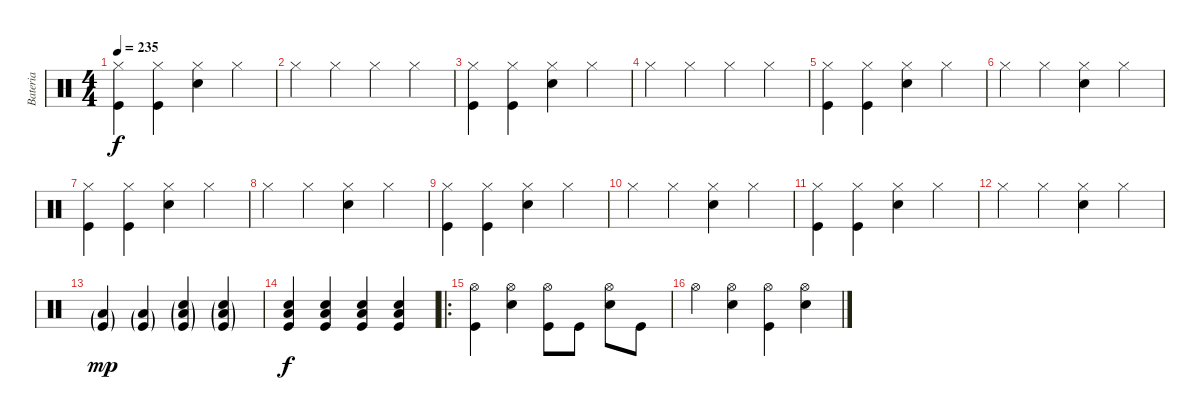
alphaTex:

\track ("Bateria" "Bateria") {instrument percussion}
\staff {score}
\articulation defaults
\ts (4 4)
\tempo 235
\clef neutral
\ks c
("Hi-Hat (closed)" "Kick (hit)").4{dy f} ("Hi-Hat (closed)" "Kick (hit)").4 ("Hi-Hat (closed)" "Electric Snare (hit)").4 "Hi-Hat (closed)".4 |
"Hi-Hat (closed)".4 "Hi-Hat (closed)".4 "Hi-Hat (closed)".4 "Hi-Hat (closed)".4 |
("Hi-Hat (closed)" "Kick (hit)").4 ("Hi-Hat (closed)" "Kick (hit)").4 ("Hi-Hat (closed)" "Electric Snare (hit)").4 "Hi-Hat (closed)".4 |
"Hi-Hat (closed)".4 "Hi-Hat (closed)".4 "Hi-Hat (closed)".4 "Hi-Hat (closed)".4 |
("Hi-Hat (closed)" "Kick (hit)").4 ("Hi-Hat (closed)" "Kick (hit)").4 ("Hi-Hat (closed)" "Electric Snare (hit)").4 "Hi-Hat (closed)".4 |
"Hi-Hat (closed)".4 "Hi-Hat (closed)".4 ("Hi-Hat (closed)" "Electric Snare (hit)").4 "Hi-Hat (closed)".4 |
("Hi-Hat (closed)" "Kick (hit)").4 ("Hi-Hat (closed)" "Kick (hit)").4 ("Hi-Hat (closed)" "Electric Snare (hit)").4 "Hi-Hat (closed)".4 |
"Hi-Hat (closed)".4 "Hi-Hat (closed)".4 ("Hi-Hat (closed)" "Electric Snare (hit)").4 "Hi-Hat (closed)".4 |
("Hi-Hat (closed)" "Kick (hit)").4 ("Hi-Hat (closed)" "Kick (hit)").4 ("Hi-Hat (closed)" "Electric Snare (hit)").4 "Hi-Hat (closed)".4 |
"Hi-Hat (closed)".4 "Hi-Hat (closed)".4 ("Hi-Hat (closed)" "Electric Snare (hit)").4 "Hi-Hat (closed)".4 |
("Hi-Hat (closed)" "Kick (hit)").4 ("Hi-Hat (closed)" "Kick (hit)").4 ("Hi-Hat (closed)" "Electric Snare (hit)").4 "Hi-Hat (closed)".4 |
"Hi-Hat (closed)".4 "Hi-Hat (closed)".4 ("Hi-Hat (closed)" "Electric Snare (hit)").4 "Hi-Hat (closed)".4 |
("Low Floor Tom (hit)"{g} "Kick (hit)"{g}).4{dy mp} ("Low Floor Tom (hit)"{g} "Kick (hit)"{g}).4 ("Low Floor Tom (hit)"{g} "Electric Snare (hit)"{g} "Kick (hit)"{g}).4 ("Low Floor Tom (hit)"{g} "Electric Snare (hit)"{g} "Kick (hit)"{g}).4 |
("Low Floor Tom (hit)" "Electric Snare (hit)" "Kick (hit)").4{dy f} ("Low Floor Tom (hit)" "Electric Snare (hit)" "Kick (hit)").4 ("Low Floor Tom (hit)" "Electric Snare (hit)" "Kick (hit)").4 ("Low Floor Tom (hit)" "Electric Snare (hit)" "Kick (hit)").4 |
\ro
("Hi-Hat (open)" "Kick (hit)").4 ("Hi-Hat (open)" "Electric Snare (hit)").4 ("Hi-Hat (open)" "Kick (hit)").8 "Kick (hit)".8 ("Hi-Hat (open)" "Electric Snare (hit)").8 "Kick (hit)".8 |
"Hi-Hat (open)".4 ("Hi-Hat (open)" "Electric Snare (hit)").4 ("Hi-Hat (open)" "Kick (hit)").4 ("Hi-Hat (open)" "Electric Snare (hit)").4
